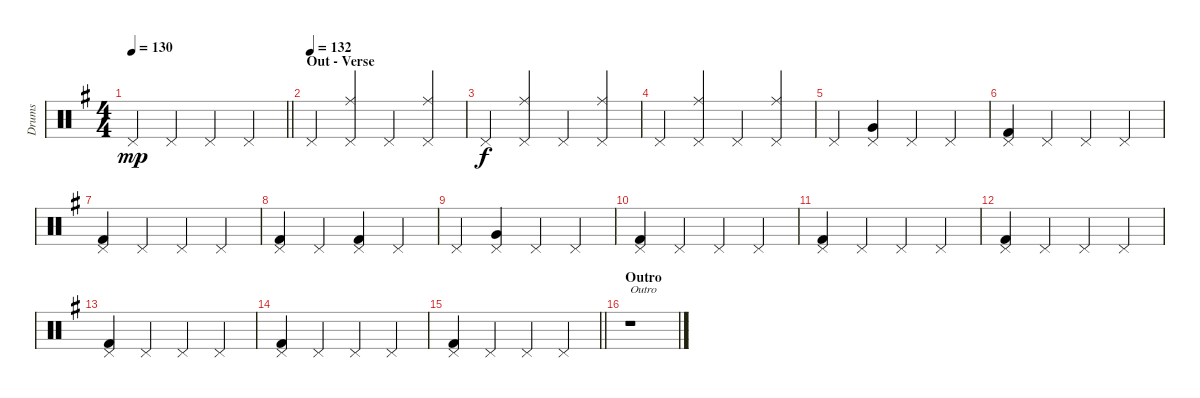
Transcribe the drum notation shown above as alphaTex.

\track ("Drums" "Drums") {instrument percussion}
\staff {score}
\articulation defaults
\ts (4 4)
\tempo 130
\clef neutral
\barLineRight lightlight
\ks g "Pedal Hi-Hat (hit)".4{dy mp} "Pedal Hi-Hat (hit)".4 "Pedal Hi-Hat (hit)".4 "Pedal Hi-Hat (hit)".4
|
\section ("" "Out - Verse")
\tempo (132)
"Pedal Hi-Hat (hit)".4 ("Pedal Hi-Hat (hit)" "Ride (middle)").4 "Pedal Hi-Hat (hit)".4 ("Pedal Hi-Hat (hit)" "Ride (middle)").4 |
"Pedal Hi-Hat (hit)".4{dy f} ("Pedal Hi-Hat (hit)" "Ride (middle)").4 "Pedal Hi-Hat (hit)".4 ("Pedal Hi-Hat (hit)" "Ride (middle)").4 |
"Pedal Hi-Hat (hit)".4 ("Pedal Hi-Hat (hit)" "Ride (middle)").4 "Pedal Hi-Hat (hit)".4 ("Pedal Hi-Hat (hit)" "Ride (middle)").4 |
"Pedal Hi-Hat (hit)".4 ("Pedal Hi-Hat (hit)" "Very Low Tom (hit)").4 "Pedal Hi-Hat (hit)".4 "Pedal Hi-Hat (hit)".4 |
("Pedal Hi-Hat (hit)" "Kick (hit) 2").4 "Pedal Hi-Hat (hit)".4 "Pedal Hi-Hat (hit)".4 "Pedal Hi-Hat (hit)".4 |
("Pedal Hi-Hat (hit)" "Kick (hit) 2").4 "Pedal Hi-Hat (hit)".4 "Pedal Hi-Hat (hit)".4 "Pedal Hi-Hat (hit)".4 |
("Pedal Hi-Hat (hit)" "Kick (hit) 2").4 "Pedal Hi-Hat (hit)".4 ("Pedal Hi-Hat (hit)" "Kick (hit) 2").4 "Pedal Hi-Hat (hit)".4 |
"Pedal Hi-Hat (hit)".4 ("Pedal Hi-Hat (hit)" "Very Low Tom (hit)").4 "Pedal Hi-Hat (hit)".4 "Pedal Hi-Hat (hit)".4 |
("Pedal Hi-Hat (hit)" "Kick (hit) 2").4 "Pedal Hi-Hat (hit)".4 "Pedal Hi-Hat (hit)".4 "Pedal Hi-Hat (hit)".4 |
("Pedal Hi-Hat (hit)" "Kick (hit) 2").4 "Pedal Hi-Hat (hit)".4 "Pedal Hi-Hat (hit)".4 "Pedal Hi-Hat (hit)".4 |
("Pedal Hi-Hat (hit)" "Kick (hit) 2").4{volume 0} "Pedal Hi-Hat (hit)".4 "Pedal Hi-Hat (hit)".4 "Pedal Hi-Hat (hit)".4 |
("Pedal Hi-Hat (hit)" "Kick (hit) 2").4 "Pedal Hi-Hat (hit)".4 "Pedal Hi-Hat (hit)".4 "Pedal Hi-Hat (hit)".4 |
("Pedal Hi-Hat (hit)" "Kick (hit) 2").4 "Pedal Hi-Hat (hit)".4 "Pedal Hi-Hat (hit)".4 "Pedal Hi-Hat (hit)".4 |
\barLineRight lightlight
("Pedal Hi-Hat (hit)" "Kick (hit) 2").4 "Pedal Hi-Hat (hit)".4 "Pedal Hi-Hat (hit)".4 "Pedal Hi-Hat (hit)".4 |
\section ("" "Outro")
r.1{txt "Outro"}
